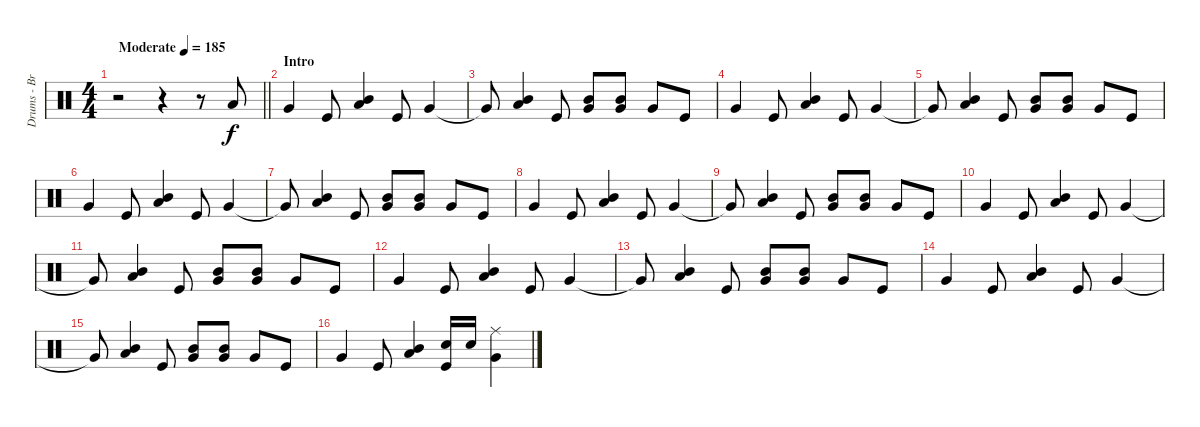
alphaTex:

\track ("Drums - Brandon Barnes" "Drums - Br") {instrument percussion}
\staff {score}
\articulation defaults
\ts (4 4)
\tempo (185 "Moderate")
\clef neutral
\barLineRight lightlight
\ks c
r.2{dy f} r.4 r.8 "Low Floor Tom (hit)".8 |
\section ("" "Intro")
"Very Low Tom (hit)".4 "Kick (hit)".8 ("Low Tom (hit)" "Mid Tom (hit)").4 "Kick (hit)".8 "Very Low Tom (hit)".4 |
"Very Low Tom (hit)"{t}.8 ("Low Tom (hit)" "Mid Tom (hit)").4 "Kick (hit)".8 ("Very Low Tom (hit)" "Mid Tom (hit)").8 ("Very Low Tom (hit)" "Mid Tom (hit)").8 "Very Low Tom (hit)".8 "Kick (hit)".8 |
"Very Low Tom (hit)".4 "Kick (hit)".8 ("Low Tom (hit)" "Mid Tom (hit)").4 "Kick (hit)".8 "Very Low Tom (hit)".4 |
"Very Low Tom (hit)"{t}.8 ("Low Tom (hit)" "Mid Tom (hit)").4 "Kick (hit)".8 ("Very Low Tom (hit)" "Mid Tom (hit)").8 ("Very Low Tom (hit)" "Mid Tom (hit)").8 "Very Low Tom (hit)".8 "Kick (hit)".8 |
"Very Low Tom (hit)".4 "Kick (hit)".8 ("Low Tom (hit)" "Mid Tom (hit)").4 "Kick (hit)".8 "Very Low Tom (hit)".4 |
"Very Low Tom (hit)"{t}.8 ("Low Tom (hit)" "Mid Tom (hit)").4 "Kick (hit)".8 ("Very Low Tom (hit)" "Mid Tom (hit)").8 ("Very Low Tom (hit)" "Mid Tom (hit)").8 "Very Low Tom (hit)".8 "Kick (hit)".8 |
"Very Low Tom (hit)".4 "Kick (hit)".8 ("Low Tom (hit)" "Mid Tom (hit)").4 "Kick (hit)".8 "Very Low Tom (hit)".4 |
"Very Low Tom (hit)"{t}.8 ("Low Tom (hit)" "Mid Tom (hit)").4 "Kick (hit)".8 ("Very Low Tom (hit)" "Mid Tom (hit)").8 ("Very Low Tom (hit)" "Mid Tom (hit)").8 "Very Low Tom (hit)".8 "Kick (hit)".8 |
"Very Low Tom (hit)".4 "Kick (hit)".8 ("Low Tom (hit)" "Mid Tom (hit)").4 "Kick (hit)".8 "Very Low Tom (hit)".4 |
"Very Low Tom (hit)"{t}.8 ("Low Tom (hit)" "Mid Tom (hit)").4 "Kick (hit)".8 ("Very Low Tom (hit)" "Mid Tom (hit)").8 ("Very Low Tom (hit)" "Mid Tom (hit)").8 "Very Low Tom (hit)".8 "Kick (hit)".8 |
"Very Low Tom (hit)".4 "Kick (hit)".8 ("Low Tom (hit)" "Mid Tom (hit)").4 "Kick (hit)".8 "Very Low Tom (hit)".4 |
"Very Low Tom (hit)"{t}.8 ("Low Tom (hit)" "Mid Tom (hit)").4 "Kick (hit)".8 ("Very Low Tom (hit)" "Mid Tom (hit)").8 ("Very Low Tom (hit)" "Mid Tom (hit)").8 "Very Low Tom (hit)".8 "Kick (hit)".8 |
"Very Low Tom (hit)".4 "Kick (hit)".8 ("Low Tom (hit)" "Mid Tom (hit)").4 "Kick (hit)".8 "Very Low Tom (hit)".4 |
"Very Low Tom (hit)"{t}.8 ("Low Tom (hit)" "Mid Tom (hit)").4 "Kick (hit)".8 ("Very Low Tom (hit)" "Mid Tom (hit)").8 ("Very Low Tom (hit)" "Mid Tom (hit)").8 "Very Low Tom (hit)".8 "Kick (hit)".8 |
"Very Low Tom (hit)".4 "Kick (hit)".8 ("Low Tom (hit)" "Mid Tom (hit)").4 ("Kick (hit)" "Snare (hit) 2").16 "Snare (hit) 2".16 ("Very Low Tom (hit)" "Ride (middle)").4
